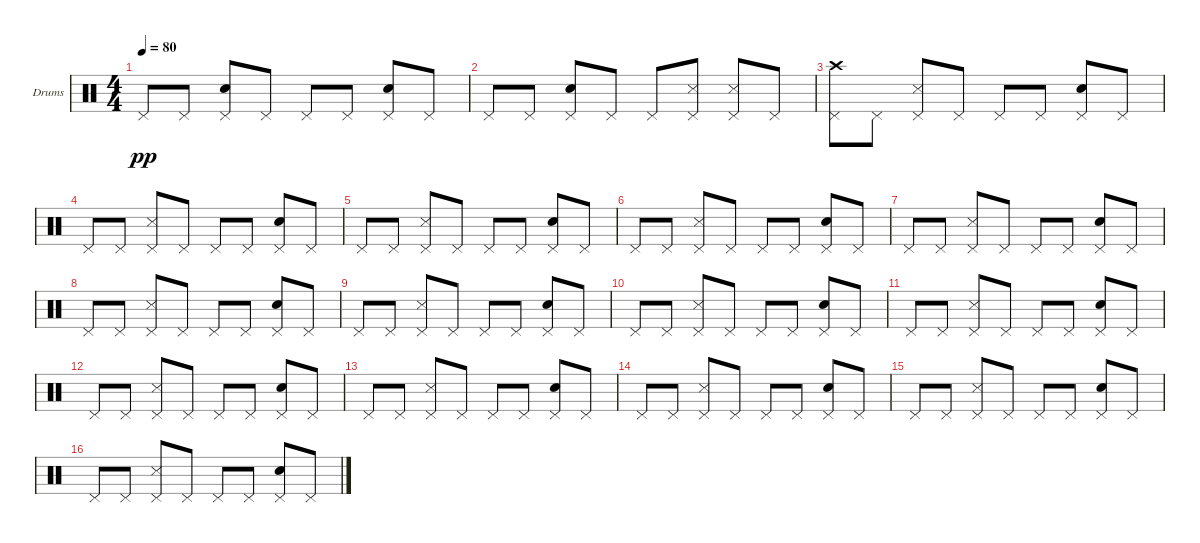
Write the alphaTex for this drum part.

\defaultSystemsLayout 4
\bracketExtendMode groupsimilarinstruments
\firstSystemTrackNameOrientation horizontal
\otherSystemsTrackNameOrientation horizontal
\track ("Drumkit" "Drums") {instrument percussion}
\staff {score}
\articulation defaults
\ts (4 4)
\tempo 80
\clef neutral
\ks c "Pedal Hi-Hat (hit)".8{dy pp} "Pedal Hi-Hat (hit)".8
("Pedal Hi-Hat (hit)" "Snare (hit) 2").8 "Pedal Hi-Hat (hit)".8 "Pedal Hi-Hat (hit)".8 "Pedal Hi-Hat (hit)".8 ("Pedal Hi-Hat (hit)" "Snare (hit) 2").8 "Pedal Hi-Hat (hit)".8 |
"Pedal Hi-Hat (hit)".8 "Pedal Hi-Hat (hit)".8 ("Pedal Hi-Hat (hit)" "Snare (hit) 2").8 "Pedal Hi-Hat (hit)".8 "Pedal Hi-Hat (hit)".8 ("Pedal Hi-Hat (hit)" "Snare (side stick) 3").8 ("Pedal Hi-Hat (hit)" "Snare (side stick) 3").8 "Pedal Hi-Hat (hit)".8 |
("Pedal Hi-Hat (hit)" "Crash high (hit)").8 "Pedal Hi-Hat (hit)".8 ("Pedal Hi-Hat (hit)" "Snare (side stick) 3").8 "Pedal Hi-Hat (hit)".8 "Pedal Hi-Hat (hit)".8 "Pedal Hi-Hat (hit)".8 ("Pedal Hi-Hat (hit)" "Snare (hit) 2").8 "Pedal Hi-Hat (hit)".8 |
"Pedal Hi-Hat (hit)".8 "Pedal Hi-Hat (hit)".8 ("Pedal Hi-Hat (hit)" "Snare (side stick) 3").8 "Pedal Hi-Hat (hit)".8 "Pedal Hi-Hat (hit)".8 "Pedal Hi-Hat (hit)".8 ("Pedal Hi-Hat (hit)" "Snare (hit) 2").8 "Pedal Hi-Hat (hit)".8 |
"Pedal Hi-Hat (hit)".8 "Pedal Hi-Hat (hit)".8 ("Pedal Hi-Hat (hit)" "Snare (side stick) 3").8 "Pedal Hi-Hat (hit)".8 "Pedal Hi-Hat (hit)".8 "Pedal Hi-Hat (hit)".8 ("Pedal Hi-Hat (hit)" "Snare (hit) 2").8 "Pedal Hi-Hat (hit)".8 |
"Pedal Hi-Hat (hit)".8 "Pedal Hi-Hat (hit)".8 ("Pedal Hi-Hat (hit)" "Snare (side stick) 3").8 "Pedal Hi-Hat (hit)".8 "Pedal Hi-Hat (hit)".8 "Pedal Hi-Hat (hit)".8 ("Pedal Hi-Hat (hit)" "Snare (hit) 2").8 "Pedal Hi-Hat (hit)".8 |
"Pedal Hi-Hat (hit)".8 "Pedal Hi-Hat (hit)".8 ("Pedal Hi-Hat (hit)" "Snare (side stick) 3").8 "Pedal Hi-Hat (hit)".8 "Pedal Hi-Hat (hit)".8 "Pedal Hi-Hat (hit)".8 ("Pedal Hi-Hat (hit)" "Snare (hit) 2").8 "Pedal Hi-Hat (hit)".8 |
"Pedal Hi-Hat (hit)".8 "Pedal Hi-Hat (hit)".8 ("Pedal Hi-Hat (hit)" "Snare (side stick) 3").8 "Pedal Hi-Hat (hit)".8 "Pedal Hi-Hat (hit)".8 "Pedal Hi-Hat (hit)".8 ("Pedal Hi-Hat (hit)" "Snare (hit) 2").8 "Pedal Hi-Hat (hit)".8 |
"Pedal Hi-Hat (hit)".8 "Pedal Hi-Hat (hit)".8 ("Pedal Hi-Hat (hit)" "Snare (side stick) 3").8 "Pedal Hi-Hat (hit)".8 "Pedal Hi-Hat (hit)".8 "Pedal Hi-Hat (hit)".8 ("Pedal Hi-Hat (hit)" "Snare (hit) 2").8 "Pedal Hi-Hat (hit)".8 |
"Pedal Hi-Hat (hit)".8 "Pedal Hi-Hat (hit)".8 ("Pedal Hi-Hat (hit)" "Snare (side stick) 3").8 "Pedal Hi-Hat (hit)".8 "Pedal Hi-Hat (hit)".8 "Pedal Hi-Hat (hit)".8 ("Pedal Hi-Hat (hit)" "Snare (hit) 2").8 "Pedal Hi-Hat (hit)".8 |
"Pedal Hi-Hat (hit)".8 "Pedal Hi-Hat (hit)".8 ("Pedal Hi-Hat (hit)" "Snare (side stick) 3").8 "Pedal Hi-Hat (hit)".8 "Pedal Hi-Hat (hit)".8 "Pedal Hi-Hat (hit)".8 ("Pedal Hi-Hat (hit)" "Snare (hit) 2").8 "Pedal Hi-Hat (hit)".8 |
"Pedal Hi-Hat (hit)".8 "Pedal Hi-Hat (hit)".8 ("Pedal Hi-Hat (hit)" "Snare (side stick) 3").8 "Pedal Hi-Hat (hit)".8 "Pedal Hi-Hat (hit)".8 "Pedal Hi-Hat (hit)".8 ("Pedal Hi-Hat (hit)" "Snare (hit) 2").8 "Pedal Hi-Hat (hit)".8 |
"Pedal Hi-Hat (hit)".8 "Pedal Hi-Hat (hit)".8 ("Pedal Hi-Hat (hit)" "Snare (side stick) 3").8 "Pedal Hi-Hat (hit)".8 "Pedal Hi-Hat (hit)".8 "Pedal Hi-Hat (hit)".8 ("Pedal Hi-Hat (hit)" "Snare (hit) 2").8 "Pedal Hi-Hat (hit)".8 |
"Pedal Hi-Hat (hit)".8 "Pedal Hi-Hat (hit)".8 ("Pedal Hi-Hat (hit)" "Snare (side stick) 3").8 "Pedal Hi-Hat (hit)".8 "Pedal Hi-Hat (hit)".8 "Pedal Hi-Hat (hit)".8 ("Pedal Hi-Hat (hit)" "Snare (hit) 2").8 "Pedal Hi-Hat (hit)".8 |
"Pedal Hi-Hat (hit)".8 "Pedal Hi-Hat (hit)".8 ("Pedal Hi-Hat (hit)" "Snare (side stick) 3").8 "Pedal Hi-Hat (hit)".8 "Pedal Hi-Hat (hit)".8 "Pedal Hi-Hat (hit)".8 ("Pedal Hi-Hat (hit)" "Snare (hit) 2").8 "Pedal Hi-Hat (hit)".8 |
"Pedal Hi-Hat (hit)".8 "Pedal Hi-Hat (hit)".8 ("Pedal Hi-Hat (hit)" "Snare (side stick) 3").8 "Pedal Hi-Hat (hit)".8 "Pedal Hi-Hat (hit)".8 "Pedal Hi-Hat (hit)".8 ("Pedal Hi-Hat (hit)" "Snare (hit) 2").8 "Pedal Hi-Hat (hit)".8
